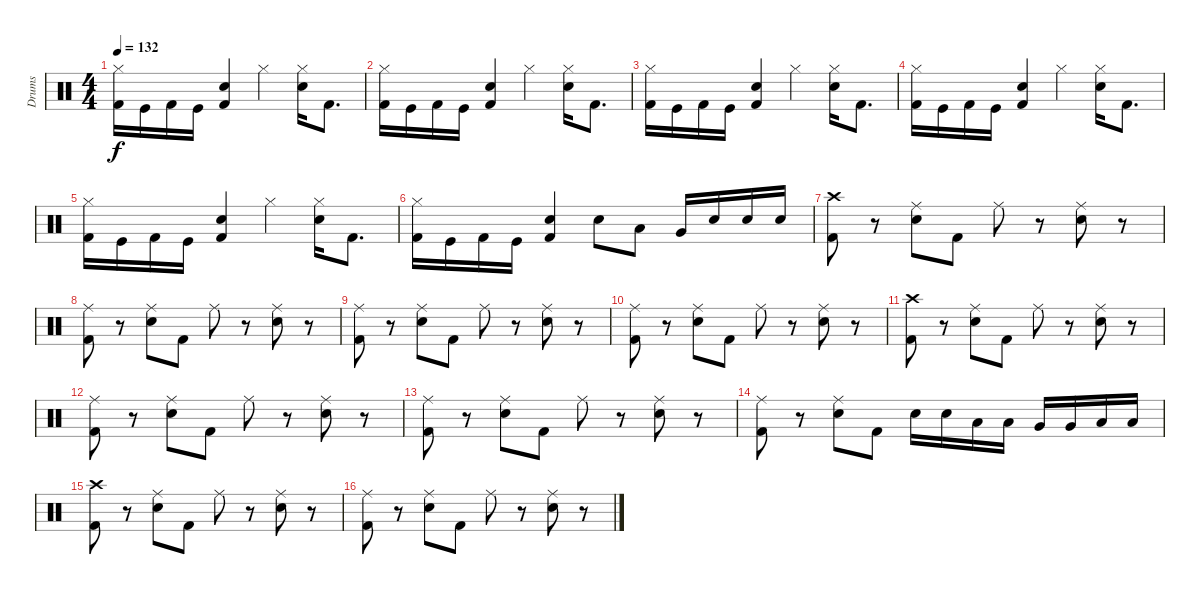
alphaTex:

\track ("Drums" "Drums") {instrument percussion}
\staff {score}
\articulation defaults
\ts (4 4)
\tempo 132
\clef neutral
\ks c
("Kick (hit) 2" "Hi-Hat (closed)").16{dy f} "Kick (hit)".16 "Kick (hit) 2".16 "Kick (hit)".16 ("Kick (hit) 2" "Snare (hit) 2").4 "Hi-Hat (closed)".4 ("Hi-Hat (closed)" "Snare (hit) 2").16 "Kick (hit) 2".8{d} |
("Kick (hit) 2" "Hi-Hat (closed)").16 "Kick (hit)".16 "Kick (hit) 2".16 "Kick (hit)".16 ("Kick (hit) 2" "Snare (hit) 2").4 "Hi-Hat (closed)".4 ("Hi-Hat (closed)" "Snare (hit) 2").16 "Kick (hit) 2".8{d} |
("Kick (hit) 2" "Hi-Hat (closed)").16 "Kick (hit)".16 "Kick (hit) 2".16 "Kick (hit)".16 ("Kick (hit) 2" "Snare (hit) 2").4 "Hi-Hat (closed)".4 ("Hi-Hat (closed)" "Snare (hit) 2").16 "Kick (hit) 2".8{d} |
("Kick (hit) 2" "Hi-Hat (closed)").16 "Kick (hit)".16 "Kick (hit) 2".16 "Kick (hit)".16 ("Kick (hit) 2" "Snare (hit) 2").4 "Hi-Hat (closed)".4 ("Hi-Hat (closed)" "Snare (hit) 2").16 "Kick (hit) 2".8{d} |
("Kick (hit) 2" "Hi-Hat (closed)").16 "Kick (hit)".16 "Kick (hit) 2".16 "Kick (hit)".16 ("Kick (hit) 2" "Snare (hit) 2").4 "Hi-Hat (closed)".4 ("Hi-Hat (closed)" "Snare (hit) 2").16 "Kick (hit) 2".8{d} |
("Kick (hit) 2" "Hi-Hat (closed)").16 "Kick (hit)".16 "Kick (hit) 2".16 "Kick (hit)".16 ("Kick (hit) 2" "Snare (hit) 2").4 "Snare (hit) 2".8 "Low Tom (hit)".8 "Very Low Tom (hit)".16 "Snare (hit) 2".16 "Snare (hit) 2".16 "Snare (hit) 2".16 |
("Crash high (hit)" "Kick (hit) 2").8 r.8 ("Ride (middle)" "Snare (hit) 2").8 "Kick (hit) 2".8 "Ride (middle)".8 r.8 ("Snare (hit) 2" "Ride (middle)").8 r.8 |
("Ride (middle)" "Kick (hit) 2").8 r.8 ("Ride (middle)" "Snare (hit) 2").8 "Kick (hit) 2".8 "Ride (middle)".8 r.8 ("Snare (hit) 2" "Ride (middle)").8 r.8 |
("Ride (middle)" "Kick (hit) 2").8 r.8 ("Ride (middle)" "Snare (hit) 2").8 "Kick (hit) 2".8 "Ride (middle)".8 r.8 ("Snare (hit) 2" "Ride (middle)").8 r.8 |
("Ride (middle)" "Kick (hit) 2").8 r.8 ("Ride (middle)" "Snare (hit) 2").8 "Kick (hit) 2".8 "Ride (middle)".8 r.8 ("Snare (hit) 2" "Ride (middle)").8 r.8 |
("Crash high (hit)" "Kick (hit) 2").8 r.8 ("Ride (middle)" "Snare (hit) 2").8 "Kick (hit) 2".8 "Ride (middle)".8 r.8 ("Snare (hit) 2" "Ride (middle)").8 r.8 |
("Ride (middle)" "Kick (hit) 2").8 r.8 ("Ride (middle)" "Snare (hit) 2").8 "Kick (hit) 2".8 "Ride (middle)".8 r.8 ("Snare (hit) 2" "Ride (middle)").8 r.8 |
("Ride (middle)" "Kick (hit) 2").8 r.8 ("Ride (middle)" "Snare (hit) 2").8 "Kick (hit) 2".8 "Ride (middle)".8 r.8 ("Snare (hit) 2" "Ride (middle)").8 r.8 |
("Ride (middle)" "Kick (hit) 2").8 r.8 ("Ride (middle)" "Snare (hit) 2").8 "Kick (hit) 2".8 "Snare (hit) 2".16 "Snare (hit) 2".16 "Low Tom (hit)".16 "Low Tom (hit)".16 "Very Low Tom (hit)".16 "Very Low Tom (hit)".16 "Low Floor Tom (hit)".16 "Low Floor Tom (hit)".16 |
("Crash high (hit)" "Kick (hit) 2").8 r.8 ("Ride (middle)" "Snare (hit) 2").8 "Kick (hit) 2".8 "Ride (middle)".8 r.8 ("Snare (hit) 2" "Ride (middle)").8 r.8 |
("Ride (middle)" "Kick (hit) 2").8 r.8 ("Ride (middle)" "Snare (hit) 2").8 "Kick (hit) 2".8 "Ride (middle)".8 r.8 ("Snare (hit) 2" "Ride (middle)").8 r.8
